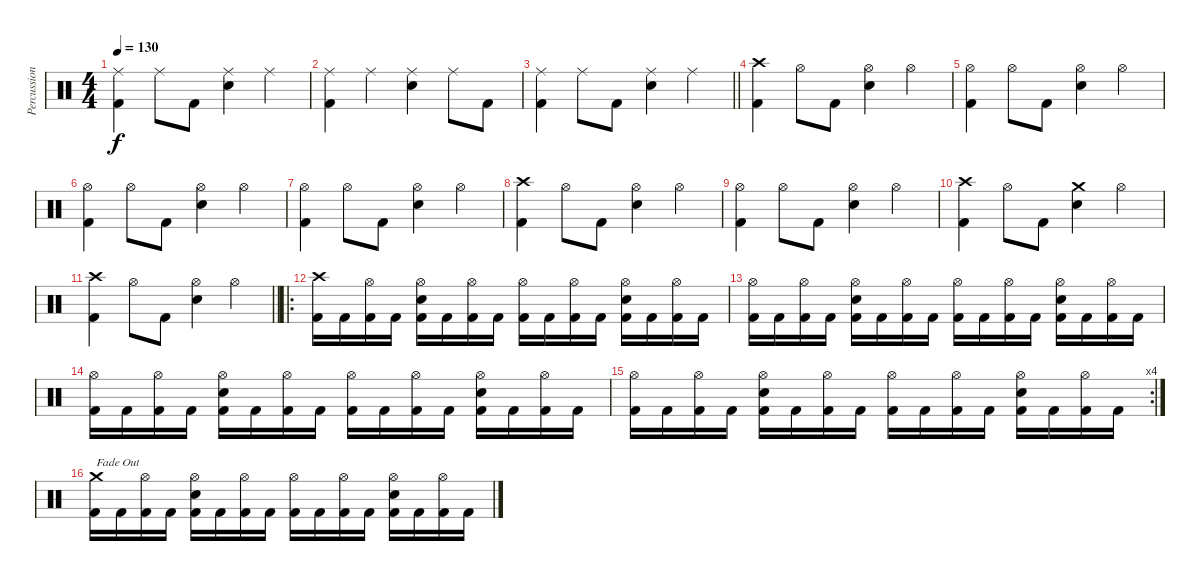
\track ("Percussion" "Percussion") {instrument percussion}
\staff {score}
\articulation defaults
\ts (4 4)
\tempo 130
\clef neutral
\ks c
("Ride (middle)" "Kick (hit) 2").4{dy f} "Ride (middle)".8 "Kick (hit) 2".8 ("Ride (middle)" "Electric Snare (hit)").4 "Ride (middle)".4 |
("Ride (middle)" "Kick (hit) 2").4 "Ride (middle)".4 ("Ride (middle)" "Electric Snare (hit)").4 "Ride (middle)".8 "Kick (hit) 2".8 |
\barLineRight lightlight
("Ride (middle)" "Kick (hit) 2").4 "Ride (middle)".8 "Kick (hit) 2".8 ("Ride (middle)" "Electric Snare (hit)").4 "Ride (middle)".4 |
("Crash high (hit)" "Kick (hit) 2").4 "Hi-Hat (open)".8 "Kick (hit) 2".8 ("Hi-Hat (open)" "Electric Snare (hit)").4 "Hi-Hat (open)".4 |
("Hi-Hat (open)" "Kick (hit) 2").4 "Hi-Hat (open)".8 "Kick (hit) 2".8 ("Hi-Hat (open)" "Electric Snare (hit)").4 "Hi-Hat (open)".4 |
("Hi-Hat (open)" "Kick (hit) 2").4 "Hi-Hat (open)".8 "Kick (hit) 2".8 ("Hi-Hat (open)" "Electric Snare (hit)").4 "Hi-Hat (open)".4 |
("Hi-Hat (open)" "Kick (hit) 2").4 "Hi-Hat (open)".8 "Kick (hit) 2".8 ("Hi-Hat (open)" "Electric Snare (hit)").4 "Hi-Hat (open)".4 |
("Crash high (hit)" "Kick (hit) 2").4 "Hi-Hat (open)".8 "Kick (hit) 2".8 ("Hi-Hat (open)" "Electric Snare (hit)").4 "Hi-Hat (open)".4 |
("Hi-Hat (open)" "Kick (hit) 2").4 "Hi-Hat (open)".8 "Kick (hit) 2".8 ("Hi-Hat (open)" "Electric Snare (hit)").4 "Hi-Hat (open)".4 |
("Crash high (hit)" "Kick (hit) 2").4 "Hi-Hat (open)".8 "Kick (hit) 2".8 ("Crash medium (hit)" "Electric Snare (hit)").4 "Hi-Hat (open)".4 |
\barLineRight lightlight
("Crash high (hit)" "Kick (hit) 2").4 "Hi-Hat (open)".8 "Kick (hit) 2".8 ("Hi-Hat (open)" "Electric Snare (hit)").4 "Hi-Hat (open)".4 |
\ro
("Crash high (hit)" "Kick (hit) 2").16 "Kick (hit) 2".16 ("Hi-Hat (open)" "Kick (hit) 2").16 "Kick (hit) 2".16 ("Hi-Hat (open)" "Electric Snare (hit)" "Kick (hit) 2").16 "Kick (hit) 2".16 ("Hi-Hat (open)" "Kick (hit) 2").16 "Kick (hit) 2".16 ("Hi-Hat (open)" "Kick (hit) 2").16 "Kick (hit) 2".16 ("Hi-Hat (open)" "Kick (hit) 2").16 "Kick (hit) 2".16 ("Hi-Hat (open)" "Electric Snare (hit)" "Kick (hit) 2").16 "Kick (hit) 2".16 ("Hi-Hat (open)" "Kick (hit) 2").16 "Kick (hit) 2".16 |
("Hi-Hat (open)" "Kick (hit) 2").16 "Kick (hit) 2".16 ("Hi-Hat (open)" "Kick (hit) 2").16 "Kick (hit) 2".16 ("Hi-Hat (open)" "Electric Snare (hit)" "Kick (hit) 2").16 "Kick (hit) 2".16 ("Hi-Hat (open)" "Kick (hit) 2").16 "Kick (hit) 2".16 ("Hi-Hat (open)" "Kick (hit) 2").16 "Kick (hit) 2".16 ("Hi-Hat (open)" "Kick (hit) 2").16 "Kick (hit) 2".16 ("Hi-Hat (open)" "Electric Snare (hit)" "Kick (hit) 2").16 "Kick (hit) 2".16 ("Hi-Hat (open)" "Kick (hit) 2").16 "Kick (hit) 2".16 |
("Hi-Hat (open)" "Kick (hit) 2").16 "Kick (hit) 2".16 ("Hi-Hat (open)" "Kick (hit) 2").16 "Kick (hit) 2".16 ("Hi-Hat (open)" "Electric Snare (hit)" "Kick (hit) 2").16 "Kick (hit) 2".16 ("Hi-Hat (open)" "Kick (hit) 2").16 "Kick (hit) 2".16 ("Hi-Hat (open)" "Kick (hit) 2").16 "Kick (hit) 2".16 ("Hi-Hat (open)" "Kick (hit) 2").16 "Kick (hit) 2".16 ("Hi-Hat (open)" "Electric Snare (hit)" "Kick (hit) 2").16 "Kick (hit) 2".16 ("Hi-Hat (open)" "Kick (hit) 2").16 "Kick (hit) 2".16 |
\rc 4
("Hi-Hat (open)" "Kick (hit) 2").16 "Kick (hit) 2".16 ("Hi-Hat (open)" "Kick (hit) 2").16 "Kick (hit) 2".16 ("Hi-Hat (open)" "Electric Snare (hit)" "Kick (hit) 2").16 "Kick (hit) 2".16 ("Hi-Hat (open)" "Kick (hit) 2").16 "Kick (hit) 2".16 ("Hi-Hat (open)" "Kick (hit) 2").16 "Kick (hit) 2".16 ("Hi-Hat (open)" "Kick (hit) 2").16 "Kick (hit) 2".16 ("Hi-Hat (open)" "Electric Snare (hit)" "Kick (hit) 2").16 "Kick (hit) 2".16 ("Hi-Hat (open)" "Kick (hit) 2").16 "Kick (hit) 2".16 |
("Crash medium (hit)" "Kick (hit) 2").16{txt "Fade Out" volume 0} "Kick (hit) 2".16 ("Hi-Hat (open)" "Kick (hit) 2").16 "Kick (hit) 2".16 ("Hi-Hat (open)" "Electric Snare (hit)" "Kick (hit) 2").16 "Kick (hit) 2".16 ("Hi-Hat (open)" "Kick (hit) 2").16 "Kick (hit) 2".16 ("Hi-Hat (open)" "Kick (hit) 2").16 "Kick (hit) 2".16 ("Hi-Hat (open)" "Kick (hit) 2").16 "Kick (hit) 2".16 ("Hi-Hat (open)" "Electric Snare (hit)" "Kick (hit) 2").16 "Kick (hit) 2".16 ("Hi-Hat (open)" "Kick (hit) 2").16 "Kick (hit) 2".16
